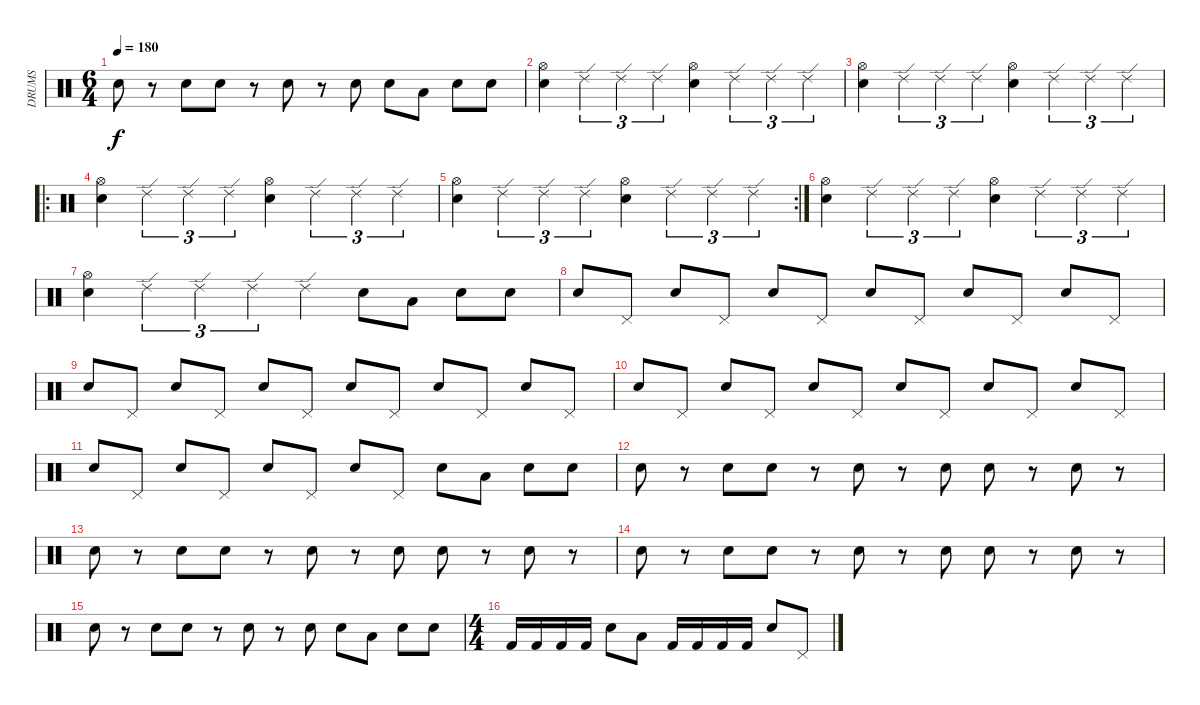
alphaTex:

\track ("DRUMS" "DRUMS") {instrument percussion}
\staff {score}
\articulation defaults
\ts (6 4)
\tempo 180
\clef neutral
\ks c "Electric Snare (hit)".8{dy f}
r.8 "Electric Snare (hit)".8 "Electric Snare (hit)".8 r.8 "Electric Snare (hit)".8 r.8 "Electric Snare (hit)".8 "Electric Snare (hit)".8 "Low Tom (hit)".8 "Electric Snare (hit)".8 "Electric Snare (hit)".8 |
("Electric Snare (hit)" "Hi-Hat (open)").4 "Ride (edge) 2".4{tu (3 2)} "Ride (edge) 2".4{tu (3 2)} "Ride (edge) 2".4{tu (3 2)} ("Electric Snare (hit)" "Hi-Hat (open)").4 "Ride (edge) 2".4{tu (3 2)} "Ride (edge) 2".4{tu (3 2)} "Ride (edge) 2".4{tu (3 2)} |
("Electric Snare (hit)" "Hi-Hat (open)").4 "Ride (edge) 2".4{tu (3 2)} "Ride (edge) 2".4{tu (3 2)} "Ride (edge) 2".4{tu (3 2)} ("Electric Snare (hit)" "Hi-Hat (open)").4 "Ride (edge) 2".4{tu (3 2)} "Ride (edge) 2".4{tu (3 2)} "Ride (edge) 2".4{tu (3 2)} |
\ro
("Electric Snare (hit)" "Hi-Hat (open)").4 "Ride (edge) 2".4{tu (3 2)} "Ride (edge) 2".4{tu (3 2)} "Ride (edge) 2".4{tu (3 2)} ("Electric Snare (hit)" "Hi-Hat (open)").4 "Ride (edge) 2".4{tu (3 2)} "Ride (edge) 2".4{tu (3 2)} "Ride (edge) 2".4{tu (3 2)} |
\rc 2
("Electric Snare (hit)" "Hi-Hat (open)").4 "Ride (edge) 2".4{tu (3 2)} "Ride (edge) 2".4{tu (3 2)} "Ride (edge) 2".4{tu (3 2)} ("Electric Snare (hit)" "Hi-Hat (open)").4 "Ride (edge) 2".4{tu (3 2)} "Ride (edge) 2".4{tu (3 2)} "Ride (edge) 2".4{tu (3 2)} |
("Electric Snare (hit)" "Hi-Hat (open)").4 "Ride (edge) 2".4{tu (3 2)} "Ride (edge) 2".4{tu (3 2)} "Ride (edge) 2".4{tu (3 2)} ("Electric Snare (hit)" "Hi-Hat (open)").4 "Ride (edge) 2".4{tu (3 2)} "Ride (edge) 2".4{tu (3 2)} "Ride (edge) 2".4{tu (3 2)} |
("Electric Snare (hit)" "Hi-Hat (open)").4 "Ride (edge) 2".4{tu (3 2)} "Ride (edge) 2".4{tu (3 2)} "Ride (edge) 2".4{tu (3 2)} "Ride (edge) 2".4 "Electric Snare (hit)".8 "Low Tom (hit)".8 "Electric Snare (hit)".8 "Electric Snare (hit)".8 |
"Electric Snare (hit)".8 "Pedal Hi-Hat (hit)".8 "Electric Snare (hit)".8 "Pedal Hi-Hat (hit)".8 "Electric Snare (hit)".8 "Pedal Hi-Hat (hit)".8 "Electric Snare (hit)".8 "Pedal Hi-Hat (hit)".8 "Electric Snare (hit)".8 "Pedal Hi-Hat (hit)".8 "Electric Snare (hit)".8 "Pedal Hi-Hat (hit)".8 |
"Electric Snare (hit)".8 "Pedal Hi-Hat (hit)".8 "Electric Snare (hit)".8 "Pedal Hi-Hat (hit)".8 "Electric Snare (hit)".8 "Pedal Hi-Hat (hit)".8 "Electric Snare (hit)".8 "Pedal Hi-Hat (hit)".8 "Electric Snare (hit)".8 "Pedal Hi-Hat (hit)".8 "Electric Snare (hit)".8 "Pedal Hi-Hat (hit)".8 |
"Electric Snare (hit)".8 "Pedal Hi-Hat (hit)".8 "Electric Snare (hit)".8 "Pedal Hi-Hat (hit)".8 "Electric Snare (hit)".8 "Pedal Hi-Hat (hit)".8 "Electric Snare (hit)".8 "Pedal Hi-Hat (hit)".8 "Electric Snare (hit)".8 "Pedal Hi-Hat (hit)".8 "Electric Snare (hit)".8 "Pedal Hi-Hat (hit)".8 |
"Electric Snare (hit)".8 "Pedal Hi-Hat (hit)".8 "Electric Snare (hit)".8 "Pedal Hi-Hat (hit)".8 "Electric Snare (hit)".8 "Pedal Hi-Hat (hit)".8 "Electric Snare (hit)".8 "Pedal Hi-Hat (hit)".8 "Electric Snare (hit)".8 "Low Tom (hit)".8 "Electric Snare (hit)".8 "Electric Snare (hit)".8 |
"Electric Snare (hit)".8 r.8 "Electric Snare (hit)".8 "Electric Snare (hit)".8 r.8 "Electric Snare (hit)".8 r.8 "Electric Snare (hit)".8 "Electric Snare (hit)".8 r.8 "Electric Snare (hit)".8 r.8 |
"Electric Snare (hit)".8 r.8 "Electric Snare (hit)".8 "Electric Snare (hit)".8 r.8 "Electric Snare (hit)".8 r.8 "Electric Snare (hit)".8 "Electric Snare (hit)".8 r.8 "Electric Snare (hit)".8 r.8 |
"Electric Snare (hit)".8 r.8 "Electric Snare (hit)".8 "Electric Snare (hit)".8 r.8 "Electric Snare (hit)".8 r.8 "Electric Snare (hit)".8 "Electric Snare (hit)".8 r.8 "Electric Snare (hit)".8 r.8 |
"Electric Snare (hit)".8 r.8 "Electric Snare (hit)".8 "Electric Snare (hit)".8 r.8 "Electric Snare (hit)".8 r.8 "Electric Snare (hit)".8 "Electric Snare (hit)".8 "Low Tom (hit)".8 "Electric Snare (hit)".8 "Electric Snare (hit)".8 |
\ts (4 4)
"Kick (hit) 2".16 "Kick (hit) 2".16 "Kick (hit) 2".16 "Kick (hit) 2".16 "Electric Snare (hit)".8 "Low Tom (hit)".8 "Kick (hit) 2".16 "Kick (hit) 2".16 "Kick (hit) 2".16 "Kick (hit) 2".16 "Electric Snare (hit)".8 "Pedal Hi-Hat (hit)".8
